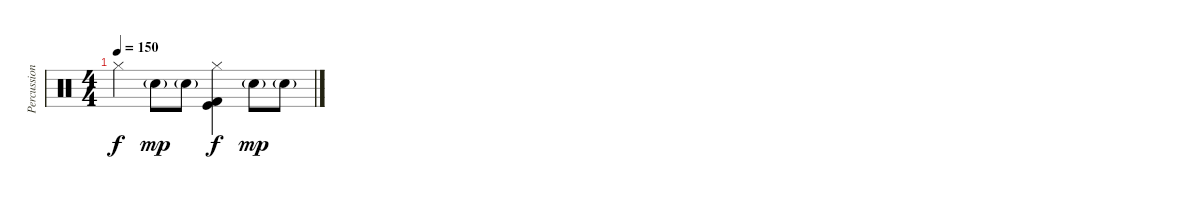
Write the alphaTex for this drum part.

\track ("Percussion" "Percussion") {instrument percussion}
\staff {score}
\articulation defaults
\ts (4 4)
\tempo 150
\clef neutral
\ks c "Hi-Hat (closed)".4{dy f} "Hand Clap (hit)"{g}.8{dy mp} "Hand Clap (hit)"{g}.8
("Hi-Hat (closed)" "Kick (hit)" "Kick (hit) 2").4{dy f} "Hand Clap (hit)"{g}.8{dy mp} "Hand Clap (hit)"{g}.8
